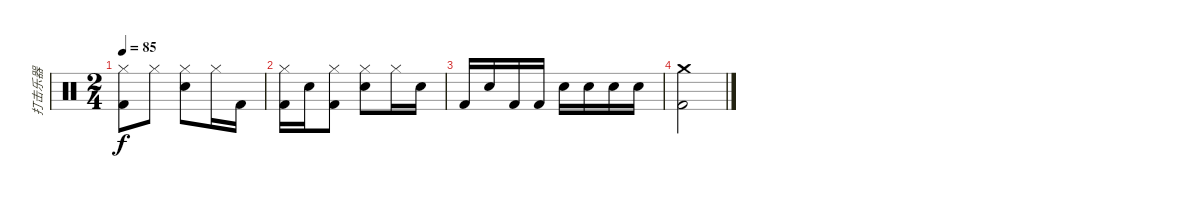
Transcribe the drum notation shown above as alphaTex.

\track ("打击乐器" "打击乐器") {instrument percussion}
\staff {score}
\articulation defaults
\ts (2 4)
\tempo 85
\clef neutral
\ks c
("Hi-Hat (closed)" "Kick (hit) 2").8{dy f} "Hi-Hat (closed)".8 ("Hi-Hat (closed)" "Electric Snare (hit)").8 "Hi-Hat (closed)".16 "Kick (hit) 2".16 |
("Hi-Hat (closed)" "Kick (hit) 2").16 "Electric Snare (hit)".16 ("Hi-Hat (closed)" "Kick (hit) 2").8 ("Hi-Hat (closed)" "Electric Snare (hit)").8 "Hi-Hat (closed)".16 "Electric Snare (hit)".16 |
"Kick (hit) 2".16 "Electric Snare (hit)".16 "Kick (hit) 2".16 "Kick (hit) 2".16 "Electric Snare (hit)".16 "Electric Snare (hit)".16 "Electric Snare (hit)".16 "Electric Snare (hit)".16 |
("Crash medium (hit)" "Kick (hit) 2").2
